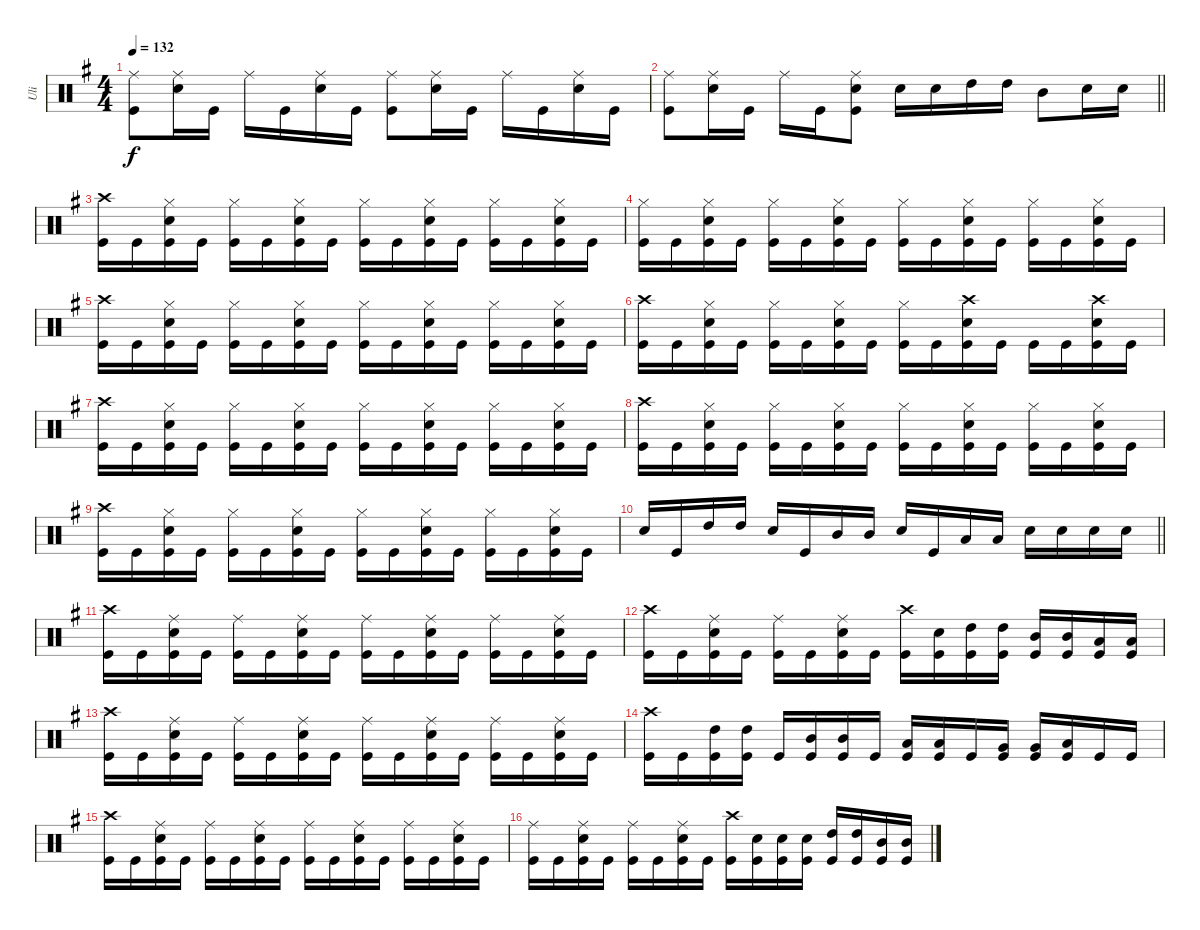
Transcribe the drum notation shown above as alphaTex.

\track ("Uli" "Uli") {instrument percussion}
\staff {score}
\articulation defaults
\ts (4 4)
\tempo 132
\clef neutral
\ks eminor
("Ride (middle)" "Kick (hit)").8{dy f} ("Ride (middle)" "Snare (hit) 2").16 "Kick (hit)".16 "Ride (middle)".16 "Kick (hit)".16 ("Ride (middle)" "Snare (hit) 2").16 "Kick (hit)".16 ("Ride (middle)" "Kick (hit)").8 ("Ride (middle)" "Snare (hit) 2").16 "Kick (hit)".16 "Ride (middle)".16 "Kick (hit)".16 ("Ride (middle)" "Snare (hit) 2").16 "Kick (hit)".16 |
\barLineRight lightlight
("Ride (middle)" "Kick (hit)").8 ("Ride (middle)" "Snare (hit) 2").16 "Kick (hit)".16 "Ride (middle)".16 "Kick (hit)".16 ("Ride (middle)" "Snare (hit) 2" "Kick (hit)").8 "Snare (hit) 2".16 "Snare (hit) 2".16 "High Tom (hit)".16 "High Tom (hit)".16 "Mid Tom (hit)".8 "Snare (hit) 2".16 "Snare (hit)".16 |
("Crash high (hit)" "Kick (hit)").16 "Kick (hit)".16 ("Hi-Hat (closed)" "Snare (hit) 2" "Kick (hit)").16 "Kick (hit)".16 ("Hi-Hat (closed)" "Kick (hit)").16 "Kick (hit)".16 ("Hi-Hat (closed)" "Snare (hit) 2" "Kick (hit)").16 "Kick (hit)".16 ("Hi-Hat (closed)" "Kick (hit)").16 "Kick (hit)".16 ("Hi-Hat (closed)" "Snare (hit) 2" "Kick (hit)").16 "Kick (hit)".16 ("Hi-Hat (closed)" "Kick (hit)").16 "Kick (hit)".16 ("Hi-Hat (closed)" "Snare (hit) 2" "Kick (hit)").16 "Kick (hit)".16 |
("Hi-Hat (closed)" "Kick (hit)").16 "Kick (hit)".16 ("Hi-Hat (closed)" "Snare (hit) 2" "Kick (hit)").16 "Kick (hit)".16 ("Hi-Hat (closed)" "Kick (hit)").16 "Kick (hit)".16 ("Hi-Hat (closed)" "Snare (hit) 2" "Kick (hit)").16 "Kick (hit)".16 ("Hi-Hat (closed)" "Kick (hit)").16 "Kick (hit)".16 ("Hi-Hat (closed)" "Snare (hit) 2" "Kick (hit)").16 "Kick (hit)".16 ("Hi-Hat (closed)" "Kick (hit)").16 "Kick (hit)".16 ("Hi-Hat (closed)" "Snare (hit) 2" "Kick (hit)").16 "Kick (hit)".16 |
("Crash high (hit)" "Kick (hit)").16 "Kick (hit)".16 ("Hi-Hat (closed)" "Snare (hit) 2" "Kick (hit)").16 "Kick (hit)".16 ("Hi-Hat (closed)" "Kick (hit)").16 "Kick (hit)".16 ("Hi-Hat (closed)" "Snare (hit) 2" "Kick (hit)").16 "Kick (hit)".16 ("Hi-Hat (closed)" "Kick (hit)").16 "Kick (hit)".16 ("Hi-Hat (closed)" "Snare (hit) 2" "Kick (hit)").16 "Kick (hit)".16 ("Hi-Hat (closed)" "Kick (hit)").16 "Kick (hit)".16 ("Hi-Hat (closed)" "Snare (hit) 2" "Kick (hit)").16 "Kick (hit)".16 |
("Crash high (hit)" "Kick (hit)").16 "Kick (hit)".16 ("Hi-Hat (closed)" "Snare (hit) 2" "Kick (hit)").16 "Kick (hit)".16 ("Hi-Hat (closed)" "Kick (hit)").16 "Kick (hit)".16 ("Hi-Hat (closed)" "Snare (hit) 2" "Kick (hit)").16 "Kick (hit)".16 ("Hi-Hat (closed)" "Kick (hit)").16 "Kick (hit)".16 ("Crash high (hit)" "Snare (hit) 2" "Kick (hit)").16 "Kick (hit)".16 "Kick (hit)".16 "Kick (hit)".16 ("Crash high (hit)" "Snare (hit) 2" "Kick (hit)").16 "Kick (hit)".16 |
("Crash high (hit)" "Kick (hit)").16 "Kick (hit)".16 ("Hi-Hat (closed)" "Snare (hit) 2" "Kick (hit)").16 "Kick (hit)".16 ("Hi-Hat (closed)" "Kick (hit)").16 "Kick (hit)".16 ("Hi-Hat (closed)" "Snare (hit) 2" "Kick (hit)").16 "Kick (hit)".16 ("Hi-Hat (closed)" "Kick (hit)").16 "Kick (hit)".16 ("Hi-Hat (closed)" "Snare (hit) 2" "Kick (hit)").16 "Kick (hit)".16 ("Hi-Hat (closed)" "Kick (hit)").16 "Kick (hit)".16 ("Hi-Hat (closed)" "Snare (hit) 2" "Kick (hit)").16 "Kick (hit)".16 |
("Crash high (hit)" "Kick (hit)").16 "Kick (hit)".16 ("Hi-Hat (closed)" "Snare (hit) 2" "Kick (hit)").16 "Kick (hit)".16 ("Hi-Hat (closed)" "Kick (hit)").16 "Kick (hit)".16 ("Hi-Hat (closed)" "Snare (hit) 2" "Kick (hit)").16 "Kick (hit)".16 ("Hi-Hat (closed)" "Kick (hit)").16 "Kick (hit)".16 ("Hi-Hat (closed)" "Snare (hit) 2" "Kick (hit)").16 "Kick (hit)".16 ("Hi-Hat (closed)" "Kick (hit)").16 "Kick (hit)".16 ("Hi-Hat (closed)" "Snare (hit) 2" "Kick (hit)").16 "Kick (hit)".16 |
("Crash high (hit)" "Kick (hit)").16 "Kick (hit)".16 ("Hi-Hat (closed)" "Snare (hit) 2" "Kick (hit)").16 "Kick (hit)".16 ("Hi-Hat (closed)" "Kick (hit)").16 "Kick (hit)".16 ("Hi-Hat (closed)" "Snare (hit) 2" "Kick (hit)").16 "Kick (hit)".16 ("Hi-Hat (closed)" "Kick (hit)").16 "Kick (hit)".16 ("Hi-Hat (closed)" "Snare (hit) 2" "Kick (hit)").16 "Kick (hit)".16 ("Hi-Hat (closed)" "Kick (hit)").16 "Kick (hit)".16 ("Hi-Hat (closed)" "Snare (hit) 2" "Kick (hit)").16 "Kick (hit)".16 |
\barLineRight lightlight "Snare (hit) 2".16 "Kick (hit)".16 "High Tom (hit)".16 "High Tom (hit)".16 "Snare (hit) 2".16 "Kick (hit)".16 "Mid Tom (hit)".16 "Mid Tom (hit)".16 "Snare (hit) 2".16 "Kick (hit)".16 "Low Tom (hit)".16 "Low Tom (hit)".16 "Snare (hit) 2".16 "Snare (hit) 2".16 "Snare (hit) 2".16 "Snare (hit) 2".16
|
("Crash high (hit)" "Kick (hit)").16 "Kick (hit)".16 ("Ride (middle)" "Snare (hit) 2" "Kick (hit)").16 "Kick (hit)".16 ("Ride (middle)" "Kick (hit)").16 "Kick (hit)".16 ("Ride (middle)" "Snare (hit) 2" "Kick (hit)").16 "Kick (hit)".16 ("Ride (middle)" "Kick (hit)").16 "Kick (hit)".16 ("Ride (middle)" "Snare (hit) 2" "Kick (hit)").16 "Kick (hit)".16 ("Ride (middle)" "Kick (hit)").16 "Kick (hit)".16 ("Ride (middle)" "Snare (hit) 2" "Kick (hit)").16 "Kick (hit)".16 |
("Crash high (hit)" "Kick (hit)").16 "Kick (hit)".16 ("Ride (middle)" "Snare (hit) 2" "Kick (hit)").16 "Kick (hit)".16 ("Ride (middle)" "Kick (hit)").16 "Kick (hit)".16 ("Ride (middle)" "Snare (hit) 2" "Kick (hit)").16 "Kick (hit)".16 ("Crash high (hit)" "Kick (hit)").16 ("Snare (hit) 2" "Kick (hit)").16 ("High Tom (hit)" "Kick (hit)").16 ("High Tom (hit)" "Kick (hit)").16 ("Mid Tom (hit)" "Kick (hit)").16 ("Mid Tom (hit)" "Kick (hit)").16 ("Low Tom (hit)" "Kick (hit)").16 ("Low Tom (hit)" "Kick (hit)").16 |
("Crash high (hit)" "Kick (hit)").16 "Kick (hit)".16 ("Ride (middle)" "Snare (hit) 2" "Kick (hit)").16 "Kick (hit)".16 ("Ride (middle)" "Kick (hit)").16 "Kick (hit)".16 ("Ride (middle)" "Snare (hit) 2" "Kick (hit)").16 "Kick (hit)".16 ("Ride (middle)" "Kick (hit)").16 "Kick (hit)".16 ("Ride (middle)" "Snare (hit) 2" "Kick (hit)").16 "Kick (hit)".16 ("Ride (middle)" "Kick (hit)").16 "Kick (hit)".16 ("Ride (middle)" "Snare (hit) 2" "Kick (hit)").16 "Kick (hit)".16 |
("Crash high (hit)" "Kick (hit)").16 "Kick (hit)".16 ("High Tom (hit)" "Kick (hit)").16 ("High Tom (hit)" "Kick (hit)").16 "Kick (hit)".16 ("Mid Tom (hit)" "Kick (hit)").16 ("Mid Tom (hit)" "Kick (hit)").16 "Kick (hit)".16 ("Low Tom (hit)" "Kick (hit)").16 ("Low Tom (hit)" "Kick (hit)").16 "Kick (hit)".16 ("Very Low Tom (hit)" "Kick (hit)").16 ("Very Low Tom (hit)" "Kick (hit)").16 ("Low Floor Tom (hit)" "Kick (hit)").16 "Kick (hit)".16 "Kick (hit)".16 |
("Crash high (hit)" "Kick (hit)").16 "Kick (hit)".16 ("Ride (middle)" "Snare (hit) 2" "Kick (hit)").16 "Kick (hit)".16 ("Ride (middle)" "Kick (hit)").16 "Kick (hit)".16 ("Ride (middle)" "Snare (hit) 2" "Kick (hit)").16 "Kick (hit)".16 ("Ride (middle)" "Kick (hit)").16 "Kick (hit)".16 ("Ride (middle)" "Snare (hit) 2" "Kick (hit)").16 "Kick (hit)".16 ("Ride (middle)" "Kick (hit)").16 "Kick (hit)".16 ("Ride (middle)" "Snare (hit) 2" "Kick (hit)").16 "Kick (hit)".16 |
("Ride (middle)" "Kick (hit)").16 "Kick (hit)".16 ("Ride (middle)" "Snare (hit) 2" "Kick (hit)").16 "Kick (hit)".16 ("Ride (middle)" "Kick (hit)").16 "Kick (hit)".16 ("Ride (middle)" "Snare (hit) 2" "Kick (hit)").16 "Kick (hit)".16 ("Crash high (hit)" "Kick (hit)").16 ("Snare (hit) 2" "Kick (hit)").16 ("Snare (hit) 2" "Kick (hit)").16 ("Snare (hit) 2" "Kick (hit)").16 ("High Tom (hit)" "Kick (hit)").16 ("High Tom (hit)" "Kick (hit)").16 ("Mid Tom (hit)" "Kick (hit)").16 ("Mid Tom (hit)" "Kick (hit)").16
